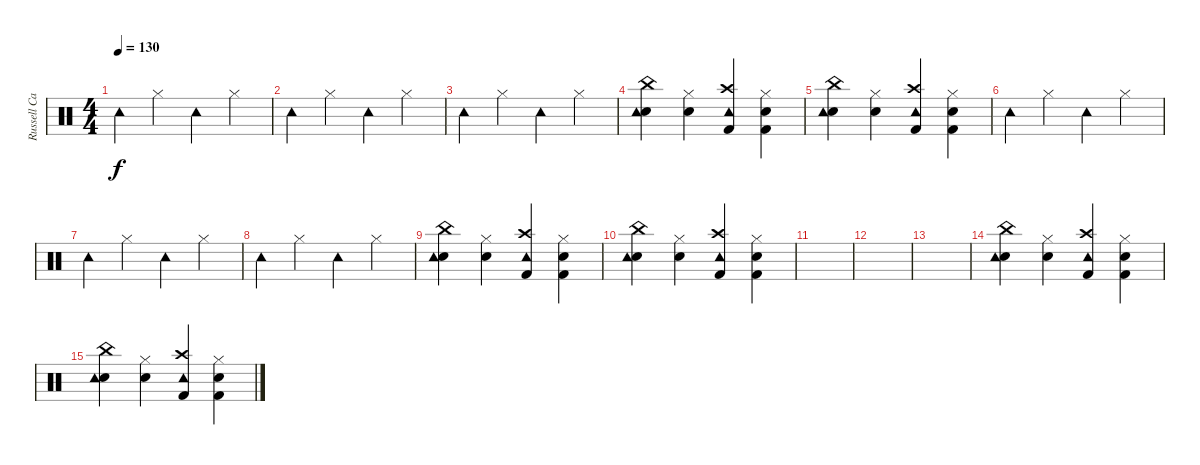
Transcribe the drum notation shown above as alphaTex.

\track ("Russell Cannon" "Russell Ca") {instrument percussion}
\staff {score}
\articulation defaults
\ts (4 4)
\tempo 130
\clef neutral
\ks c "Tambourine (hit)".4{dy f} "Hi-Hat (closed)".4 "Tambourine (hit)".4 "Hi-Hat (closed)".4
|
"Tambourine (hit)".4 "Hi-Hat (closed)".4 "Tambourine (hit)".4 "Hi-Hat (closed)".4 |
"Tambourine (hit)".4 "Hi-Hat (closed)".4 "Tambourine (hit)".4 "Hi-Hat (closed)".4 |
("Electric Snare (hit)" "China (hit)" "Tambourine (hit)").4 ("Electric Snare (hit)" "Hi-Hat (closed)").4 ("Crash high (hit)" "Kick (hit) 2" "Tambourine (hit)").4 ("Electric Snare (hit)" "Kick (hit) 2" "Hi-Hat (closed)").4 |
("Electric Snare (hit)" "China (hit)" "Tambourine (hit)").4 ("Electric Snare (hit)" "Hi-Hat (closed)").4 ("Crash high (hit)" "Kick (hit) 2" "Tambourine (hit)").4 ("Electric Snare (hit)" "Kick (hit) 2" "Hi-Hat (closed)").4 |
"Tambourine (hit)".4 "Hi-Hat (closed)".4 "Tambourine (hit)".4 "Hi-Hat (closed)".4 |
"Tambourine (hit)".4 "Hi-Hat (closed)".4 "Tambourine (hit)".4 "Hi-Hat (closed)".4 |
"Tambourine (hit)".4 "Hi-Hat (closed)".4 "Tambourine (hit)".4 "Hi-Hat (closed)".4 |
("Electric Snare (hit)" "China (hit)" "Tambourine (hit)").4 ("Electric Snare (hit)" "Hi-Hat (closed)").4 ("Crash high (hit)" "Kick (hit) 2" "Tambourine (hit)").4 ("Electric Snare (hit)" "Kick (hit) 2" "Hi-Hat (closed)").4 |
("Electric Snare (hit)" "China (hit)" "Tambourine (hit)").4 ("Electric Snare (hit)" "Hi-Hat (closed)").4 ("Crash high (hit)" "Kick (hit) 2" "Tambourine (hit)").4 ("Electric Snare (hit)" "Kick (hit) 2" "Hi-Hat (closed)").4 |
|
|
|
("Electric Snare (hit)" "China (hit)" "Tambourine (hit)").4 ("Electric Snare (hit)" "Hi-Hat (closed)").4 ("Crash high (hit)" "Kick (hit) 2" "Tambourine (hit)").4 ("Electric Snare (hit)" "Kick (hit) 2" "Hi-Hat (closed)").4 |
("Electric Snare (hit)" "China (hit)" "Tambourine (hit)").4 ("Electric Snare (hit)" "Hi-Hat (closed)").4 ("Crash high (hit)" "Kick (hit) 2" "Tambourine (hit)").4 ("Electric Snare (hit)" "Kick (hit) 2" "Hi-Hat (closed)").4
